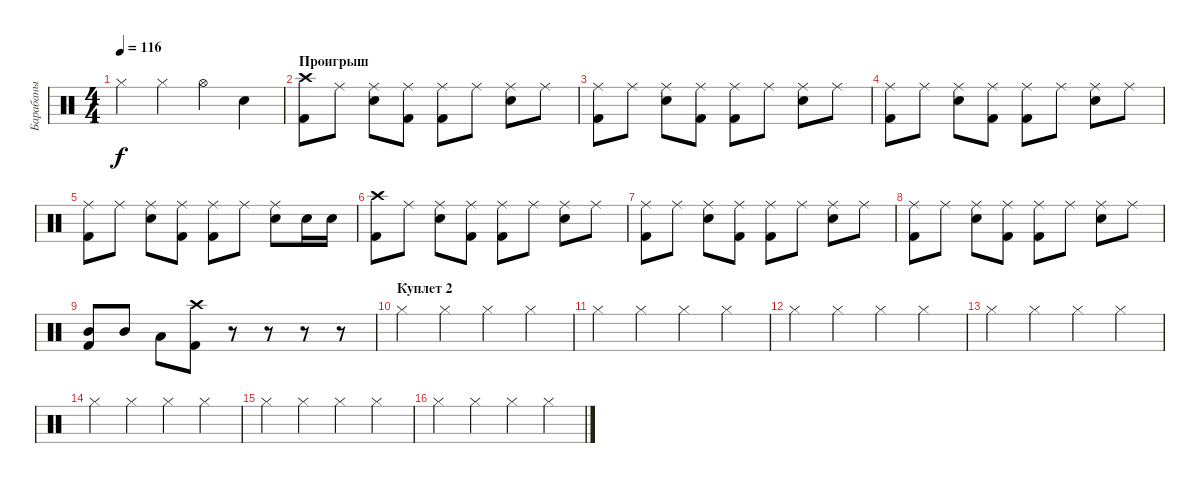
\track ("Барабаны" "Барабаны") {instrument percussion}
\staff {score}
\articulation defaults
\ts (4 4)
\tempo 116
\clef neutral
\ks c "Hi-Hat (closed)".4{dy f} "Hi-Hat (closed)".4 "Hi-Hat (open)".4 "Snare (hit) 2".4{volume 16}
|
\section ("" "Проигрыш")
("Crash high (hit)" "Kick (hit) 2").8 "Ride (middle)".8 ("Ride (middle)" "Snare (hit) 2").8 ("Ride (middle)" "Kick (hit) 2").8 ("Ride (middle)" "Kick (hit) 2").8 "Ride (middle)".8 ("Ride (middle)" "Snare (hit) 2").8 "Ride (middle)".8 |
("Ride (middle)" "Kick (hit) 2").8 "Ride (middle)".8 ("Ride (middle)" "Snare (hit) 2").8 ("Ride (middle)" "Kick (hit) 2").8 ("Ride (middle)" "Kick (hit) 2").8 "Ride (middle)".8 ("Ride (middle)" "Snare (hit) 2").8 "Ride (middle)".8 |
("Ride (middle)" "Kick (hit) 2").8 "Ride (middle)".8 ("Ride (middle)" "Snare (hit) 2").8 ("Ride (middle)" "Kick (hit) 2").8 ("Ride (middle)" "Kick (hit) 2").8 "Ride (middle)".8 ("Ride (middle)" "Snare (hit) 2").8 "Ride (middle)".8 |
("Ride (middle)" "Kick (hit) 2").8 "Ride (middle)".8 ("Ride (middle)" "Snare (hit) 2").8 ("Ride (middle)" "Kick (hit) 2").8 ("Ride (middle)" "Kick (hit) 2").8 "Ride (middle)".8 ("Ride (middle)" "Snare (hit) 2").8 "Snare (hit) 2".16 "Snare (hit) 2".16 |
("Crash high (hit)" "Kick (hit) 2").8 "Ride (middle)".8 ("Ride (middle)" "Snare (hit) 2").8 ("Ride (middle)" "Kick (hit) 2").8 ("Ride (middle)" "Kick (hit) 2").8 "Ride (middle)".8 ("Ride (middle)" "Snare (hit) 2").8 "Ride (middle)".8 |
("Ride (middle)" "Kick (hit) 2").8 "Ride (middle)".8 ("Ride (middle)" "Snare (hit) 2").8 ("Ride (middle)" "Kick (hit) 2").8 ("Ride (middle)" "Kick (hit) 2").8 "Ride (middle)".8 ("Ride (middle)" "Snare (hit) 2").8 "Ride (middle)".8 |
("Ride (middle)" "Kick (hit) 2").8 "Ride (middle)".8 ("Ride (middle)" "Snare (hit) 2").8 ("Ride (middle)" "Kick (hit) 2").8 ("Ride (middle)" "Kick (hit) 2").8 "Ride (middle)".8 ("Ride (middle)" "Snare (hit) 2").8 "Ride (middle)".8 |
("Mid Tom (hit)" "Kick (hit) 2").8 "Mid Tom (hit)".8 "Low Tom (hit)".8 ("Crash high (hit)" "Kick (hit) 2").8 r.8 r.8 r.8 r.8 |
\section ("" "Куплет 2")
"Hi-Hat (closed)".4{volume 7} "Hi-Hat (closed)".4 "Hi-Hat (closed)".4 "Hi-Hat (closed)".4 |
"Hi-Hat (closed)".4 "Hi-Hat (closed)".4 "Hi-Hat (closed)".4 "Hi-Hat (closed)".4 |
"Hi-Hat (closed)".4 "Hi-Hat (closed)".4 "Hi-Hat (closed)".4 "Hi-Hat (closed)".4 |
"Hi-Hat (closed)".4 "Hi-Hat (closed)".4 "Hi-Hat (closed)".4 "Hi-Hat (closed)".4 |
"Hi-Hat (closed)".4 "Hi-Hat (closed)".4 "Hi-Hat (closed)".4 "Hi-Hat (closed)".4 |
"Hi-Hat (closed)".4 "Hi-Hat (closed)".4 "Hi-Hat (closed)".4 "Hi-Hat (closed)".4 |
"Hi-Hat (closed)".4 "Hi-Hat (closed)".4 "Hi-Hat (closed)".4 "Hi-Hat (closed)".4
